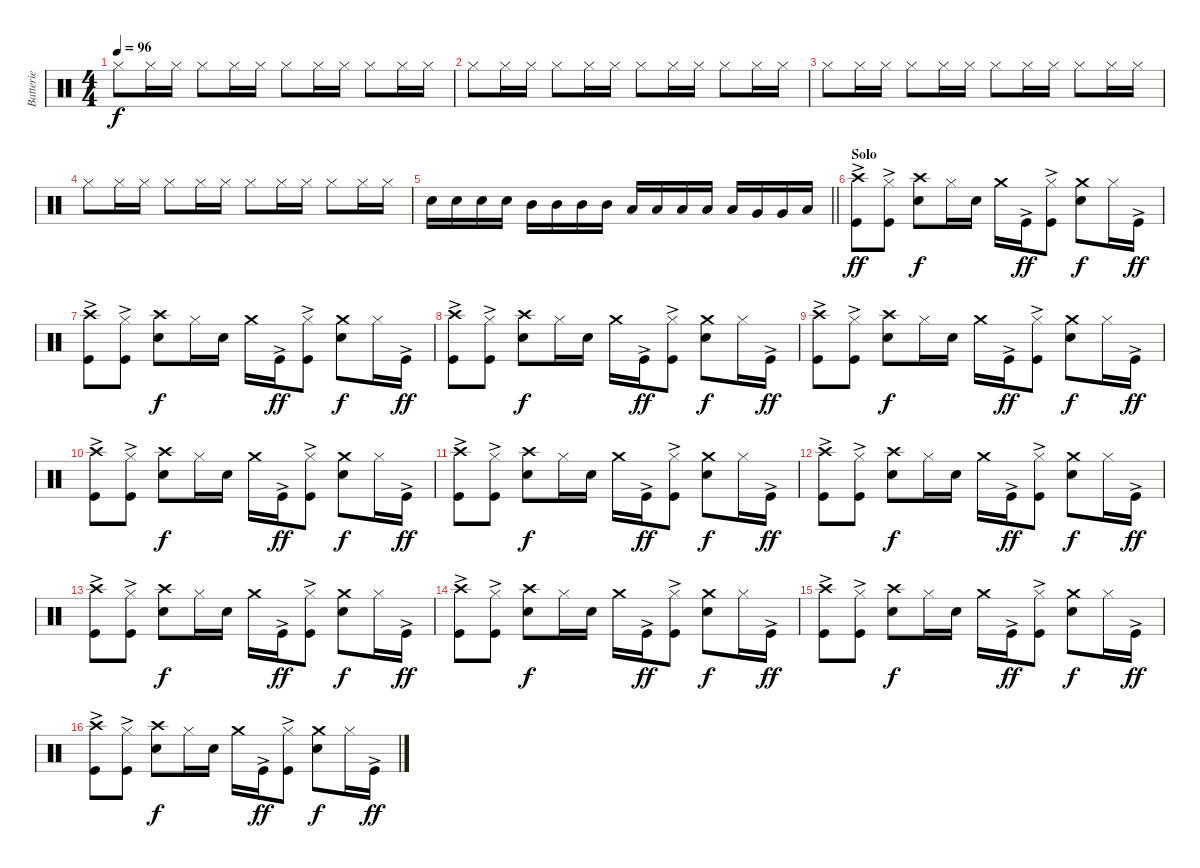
\track ("Batterie" "Batterie") {instrument percussion}
\staff {score}
\articulation defaults
\ts (4 4)
\tempo 96
\clef neutral
\ks c "Hi-Hat (closed)".8{dy f} "Hi-Hat (closed)".16 "Hi-Hat (closed)".16 "Hi-Hat (closed)".8 "Hi-Hat (closed)".16 "Hi-Hat (closed)".16 "Hi-Hat (closed)".8 "Hi-Hat (closed)".16 "Hi-Hat (closed)".16 "Hi-Hat (closed)".8 "Hi-Hat (closed)".16 "Hi-Hat (closed)".16
|
"Hi-Hat (closed)".8 "Hi-Hat (closed)".16 "Hi-Hat (closed)".16 "Hi-Hat (closed)".8 "Hi-Hat (closed)".16 "Hi-Hat (closed)".16 "Hi-Hat (closed)".8 "Hi-Hat (closed)".16 "Hi-Hat (closed)".16 "Hi-Hat (closed)".8 "Hi-Hat (closed)".16 "Hi-Hat (closed)".16 |
"Hi-Hat (closed)".8 "Hi-Hat (closed)".16 "Hi-Hat (closed)".16 "Hi-Hat (closed)".8 "Hi-Hat (closed)".16 "Hi-Hat (closed)".16 "Hi-Hat (closed)".8 "Hi-Hat (closed)".16 "Hi-Hat (closed)".16 "Hi-Hat (closed)".8 "Hi-Hat (closed)".16 "Hi-Hat (closed)".16 |
"Hi-Hat (closed)".8 "Hi-Hat (closed)".16 "Hi-Hat (closed)".16 "Hi-Hat (closed)".8 "Hi-Hat (closed)".16 "Hi-Hat (closed)".16 "Hi-Hat (closed)".8 "Hi-Hat (closed)".16 "Hi-Hat (closed)".16 "Hi-Hat (closed)".8 "Hi-Hat (closed)".16 "Hi-Hat (closed)".16 |
\barLineRight lightlight "Snare (hit) 2".16 "Snare (hit) 2".16 "Snare (hit) 2".16 "Snare (hit) 2".16 "Mid Tom (hit)".16 "Mid Tom (hit)".16 "Mid Tom (hit)".16 "Mid Tom (hit)".16 "Low Tom (hit)".16 "Low Tom (hit)".16 "Low Tom (hit)".16 "Low Tom (hit)".16 "Low Tom (hit)".16 "Very Low Tom (hit)".16 "Very Low Tom (hit)".16 "Low Floor Tom (hit)".16
|
\section ("" "Solo")
("Crash high (hit)" "Kick (hit)"{ac}).8{dy ff} ("Hi-Hat (closed)" "Kick (hit)"{ac}).8 ("Crash high (hit)" "Snare (hit) 2").8{dy f} "Hi-Hat (closed)".16 "Snare (hit) 2".16 "Crash medium (hit)".16 "Kick (hit)"{ac}.16{dy ff} ("Hi-Hat (closed)" "Kick (hit)"{ac}).8 ("Crash medium (hit)" "Snare (hit) 2").8{dy f} "Hi-Hat (closed)".16 "Kick (hit)"{ac}.16{dy ff} |
("Crash high (hit)" "Kick (hit)"{ac}).8 ("Hi-Hat (closed)" "Kick (hit)"{ac}).8 ("Crash high (hit)" "Snare (hit) 2").8{dy f} "Hi-Hat (closed)".16 "Snare (hit) 2".16 "Crash medium (hit)".16 "Kick (hit)"{ac}.16{dy ff} ("Hi-Hat (closed)" "Kick (hit)"{ac}).8 ("Crash medium (hit)" "Snare (hit) 2").8{dy f} "Hi-Hat (closed)".16 "Kick (hit)"{ac}.16{dy ff} |
("Crash high (hit)" "Kick (hit)"{ac}).8 ("Hi-Hat (closed)" "Kick (hit)"{ac}).8 ("Crash high (hit)" "Snare (hit) 2").8{dy f} "Hi-Hat (closed)".16 "Snare (hit) 2".16 "Crash medium (hit)".16 "Kick (hit)"{ac}.16{dy ff} ("Hi-Hat (closed)" "Kick (hit)"{ac}).8 ("Crash medium (hit)" "Snare (hit) 2").8{dy f} "Hi-Hat (closed)".16 "Kick (hit)"{ac}.16{dy ff} |
("Crash high (hit)" "Kick (hit)"{ac}).8 ("Hi-Hat (closed)" "Kick (hit)"{ac}).8 ("Crash high (hit)" "Snare (hit) 2").8{dy f} "Hi-Hat (closed)".16 "Snare (hit) 2".16 "Crash medium (hit)".16 "Kick (hit)"{ac}.16{dy ff} ("Hi-Hat (closed)" "Kick (hit)"{ac}).8 ("Crash medium (hit)" "Snare (hit) 2").8{dy f} "Hi-Hat (closed)".16 "Kick (hit)"{ac}.16{dy ff} |
("Crash high (hit)" "Kick (hit)"{ac}).8 ("Hi-Hat (closed)" "Kick (hit)"{ac}).8 ("Crash high (hit)" "Snare (hit) 2").8{dy f} "Hi-Hat (closed)".16 "Snare (hit) 2".16 "Crash medium (hit)".16 "Kick (hit)"{ac}.16{dy ff} ("Hi-Hat (closed)" "Kick (hit)"{ac}).8 ("Crash medium (hit)" "Snare (hit) 2").8{dy f} "Hi-Hat (closed)".16 "Kick (hit)"{ac}.16{dy ff} |
("Crash high (hit)" "Kick (hit)"{ac}).8 ("Hi-Hat (closed)" "Kick (hit)"{ac}).8 ("Crash high (hit)" "Snare (hit) 2").8{dy f} "Hi-Hat (closed)".16 "Snare (hit) 2".16 "Crash medium (hit)".16 "Kick (hit)"{ac}.16{dy ff} ("Hi-Hat (closed)" "Kick (hit)"{ac}).8 ("Crash medium (hit)" "Snare (hit) 2").8{dy f} "Hi-Hat (closed)".16 "Kick (hit)"{ac}.16{dy ff} |
("Crash high (hit)" "Kick (hit)"{ac}).8 ("Hi-Hat (closed)" "Kick (hit)"{ac}).8 ("Crash high (hit)" "Snare (hit) 2").8{dy f} "Hi-Hat (closed)".16 "Snare (hit) 2".16 "Crash medium (hit)".16 "Kick (hit)"{ac}.16{dy ff} ("Hi-Hat (closed)" "Kick (hit)"{ac}).8 ("Crash medium (hit)" "Snare (hit) 2").8{dy f} "Hi-Hat (closed)".16 "Kick (hit)"{ac}.16{dy ff} |
("Crash high (hit)" "Kick (hit)"{ac}).8 ("Hi-Hat (closed)" "Kick (hit)"{ac}).8 ("Crash high (hit)" "Snare (hit) 2").8{dy f} "Hi-Hat (closed)".16 "Snare (hit) 2".16 "Crash medium (hit)".16 "Kick (hit)"{ac}.16{dy ff} ("Hi-Hat (closed)" "Kick (hit)"{ac}).8 ("Crash medium (hit)" "Snare (hit) 2").8{dy f} "Hi-Hat (closed)".16 "Kick (hit)"{ac}.16{dy ff} |
("Crash high (hit)" "Kick (hit)"{ac}).8 ("Hi-Hat (closed)" "Kick (hit)"{ac}).8 ("Crash high (hit)" "Snare (hit) 2").8{dy f} "Hi-Hat (closed)".16 "Snare (hit) 2".16 "Crash medium (hit)".16 "Kick (hit)"{ac}.16{dy ff} ("Hi-Hat (closed)" "Kick (hit)"{ac}).8 ("Crash medium (hit)" "Snare (hit) 2").8{dy f} "Hi-Hat (closed)".16 "Kick (hit)"{ac}.16{dy ff} |
("Crash high (hit)" "Kick (hit)"{ac}).8 ("Hi-Hat (closed)" "Kick (hit)"{ac}).8 ("Crash high (hit)" "Snare (hit) 2").8{dy f} "Hi-Hat (closed)".16 "Snare (hit) 2".16 "Crash medium (hit)".16 "Kick (hit)"{ac}.16{dy ff} ("Hi-Hat (closed)" "Kick (hit)"{ac}).8 ("Crash medium (hit)" "Snare (hit) 2").8{dy f} "Hi-Hat (closed)".16 "Kick (hit)"{ac}.16{dy ff} |
("Crash high (hit)" "Kick (hit)"{ac}).8 ("Hi-Hat (closed)" "Kick (hit)"{ac}).8 ("Crash high (hit)" "Snare (hit) 2").8{dy f} "Hi-Hat (closed)".16 "Snare (hit) 2".16 "Crash medium (hit)".16 "Kick (hit)"{ac}.16{dy ff} ("Hi-Hat (closed)" "Kick (hit)"{ac}).8 ("Crash medium (hit)" "Snare (hit) 2").8{dy f} "Hi-Hat (closed)".16 "Kick (hit)"{ac}.16{dy ff}
